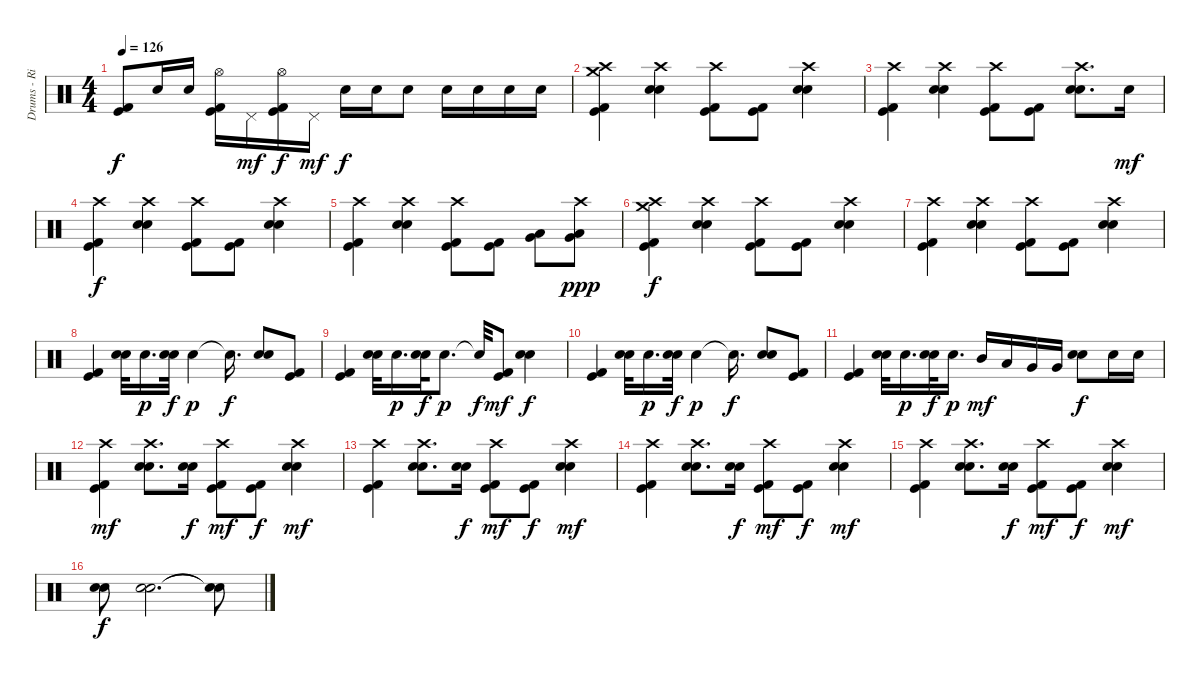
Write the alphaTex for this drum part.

\track ("Drums - Rian" "Drums - Ri") {instrument percussion}
\staff {score}
\articulation defaults
\ts (4 4)
\tempo 126
\clef neutral
\ks c
("Kick (hit) 2" "Kick (hit)").8{dy f} "Electric Snare (hit)".16 "Electric Snare (hit)".16 ("Kick (hit) 2" "Kick (hit)" "Hi-Hat (open)").16 "Pedal Hi-Hat (hit)".16{dy mf} ("Kick (hit) 2" "Kick (hit)" "Hi-Hat (open)").16{dy f} "Pedal Hi-Hat (hit)".16{dy mf} "Electric Snare (hit)".16{dy f} "Electric Snare (hit)".16 "Electric Snare (hit)".8 "Electric Snare (hit)".16 "Electric Snare (hit)".16 "Electric Snare (hit)".16 "Electric Snare (hit)".16 |
("Kick (hit) 2" "Kick (hit)" "Crash high (hit)" "Crash medium (hit)").4 ("Electric Snare (hit)" "Electric Snare (hit)" "Crash high (hit)").4 ("Kick (hit) 2" "Kick (hit)" "Crash high (hit)").8 ("Kick (hit) 2" "Kick (hit)").8 ("Electric Snare (hit)" "Electric Snare (hit)" "Crash high (hit)").4 |
("Kick (hit) 2" "Kick (hit)" "Crash high (hit)").4 ("Electric Snare (hit)" "Electric Snare (hit)" "Crash high (hit)").4 ("Kick (hit) 2" "Kick (hit)" "Crash high (hit)").8 ("Kick (hit) 2" "Kick (hit)").8 ("Electric Snare (hit)" "Electric Snare (hit)" "Crash high (hit)").8{d} "Electric Snare (hit)".16{dy mf} |
("Kick (hit) 2" "Kick (hit)" "Crash high (hit)").4{dy f} ("Electric Snare (hit)" "Electric Snare (hit)" "Crash high (hit)").4 ("Kick (hit) 2" "Kick (hit)" "Crash high (hit)").8 ("Kick (hit) 2" "Kick (hit)").8 ("Electric Snare (hit)" "Electric Snare (hit)" "Crash high (hit)").4 |
("Kick (hit) 2" "Kick (hit)" "Crash high (hit)").4 ("Electric Snare (hit)" "Electric Snare (hit)" "Crash high (hit)").4 ("Kick (hit) 2" "Kick (hit)" "Crash high (hit)").8 ("Kick (hit) 2" "Kick (hit)").8 ("Very Low Tom (hit)" "Low Tom (hit)").8 ("Very Low Tom (hit)" "Low Tom (hit)" "Crash high (hit)").8{dy ppp} |
("Kick (hit) 2" "Kick (hit)" "Crash high (hit)" "Crash medium (hit)").4{dy f} ("Electric Snare (hit)" "Electric Snare (hit)" "Crash high (hit)").4 ("Kick (hit) 2" "Kick (hit)" "Crash high (hit)").8 ("Kick (hit) 2" "Kick (hit)").8 ("Electric Snare (hit)" "Electric Snare (hit)" "Crash high (hit)").4 |
("Kick (hit) 2" "Kick (hit)" "Crash high (hit)").4 ("Electric Snare (hit)" "Electric Snare (hit)" "Crash high (hit)").4 ("Kick (hit) 2" "Kick (hit)" "Crash high (hit)").8 ("Kick (hit) 2" "Kick (hit)").8 ("Electric Snare (hit)" "Electric Snare (hit)" "Crash high (hit)").4 |
("Kick (hit) 2" "Kick (hit)").4 ("Electric Snare (hit)" "Electric Snare (hit)").32 "Electric Snare (hit)".16{d dy p} ("Electric Snare (hit)" "Electric Snare (hit)").32{dy f} "Electric Snare (hit)".4{dy p} "Snare (hit)"{t}.16{d dy f} ("Electric Snare (hit)" "Electric Snare (hit)").8 ("Kick (hit) 2" "Kick (hit)").8 |
("Kick (hit) 2" "Kick (hit)").4 ("Electric Snare (hit)" "Electric Snare (hit)").32 "Electric Snare (hit)".16{d dy p} ("Electric Snare (hit)" "Electric Snare (hit)").32{dy f} "Electric Snare (hit)".8{d dy p} "Snare (hit)"{t}.32{dy f} ("Kick (hit) 2" "Kick (hit)").8{dy mf} ("Electric Snare (hit)" "Electric Snare (hit)").4{dy f} |
("Kick (hit) 2" "Kick (hit)").4 ("Electric Snare (hit)" "Electric Snare (hit)").32 "Electric Snare (hit)".16{d dy p} ("Electric Snare (hit)" "Electric Snare (hit)").32{dy f} "Electric Snare (hit)".4{dy p} "Snare (hit)"{t}.16{d dy f} ("Electric Snare (hit)" "Electric Snare (hit)").8 ("Kick (hit) 2" "Kick (hit)").8 |
("Kick (hit) 2" "Kick (hit)").4 ("Electric Snare (hit)" "Electric Snare (hit)").32 "Electric Snare (hit)".16{d dy p} ("Electric Snare (hit)" "Electric Snare (hit)").32{dy f} "Electric Snare (hit)".16{d dy p} "Mid Tom (hit)".16{dy mf} "Low Tom (hit)".16 "Very Low Tom (hit)".16 "Very Low Tom (hit)".16 ("Electric Snare (hit)" "Electric Snare (hit)").8{dy f} "Electric Snare (hit)".16 "Electric Snare (hit)".16 |
("Kick (hit) 2" "Kick (hit)" "Crash high (hit)").4{dy mf} ("Electric Snare (hit)" "Electric Snare (hit)" "Crash high (hit)").8{d} ("Electric Snare (hit)" "Electric Snare (hit)").16{dy f} ("Kick (hit) 2" "Kick (hit)" "Crash high (hit)").8{dy mf} ("Kick (hit) 2" "Kick (hit)").8{dy f} ("Electric Snare (hit)" "Electric Snare (hit)" "Crash high (hit)").4{dy mf} |
("Kick (hit) 2" "Kick (hit)" "Crash high (hit)").4 ("Electric Snare (hit)" "Electric Snare (hit)" "Crash high (hit)").8{d} ("Electric Snare (hit)" "Electric Snare (hit)").16{dy f} ("Kick (hit) 2" "Kick (hit)" "Crash high (hit)").8{dy mf} ("Kick (hit) 2" "Kick (hit)").8{dy f} ("Electric Snare (hit)" "Electric Snare (hit)" "Crash high (hit)").4{dy mf} |
("Kick (hit) 2" "Kick (hit)" "Crash high (hit)").4 ("Electric Snare (hit)" "Electric Snare (hit)" "Crash high (hit)").8{d} ("Electric Snare (hit)" "Electric Snare (hit)").16{dy f} ("Kick (hit) 2" "Kick (hit)" "Crash high (hit)").8{dy mf} ("Kick (hit) 2" "Kick (hit)").8{dy f} ("Electric Snare (hit)" "Electric Snare (hit)" "Crash high (hit)").4{dy mf} |
("Kick (hit) 2" "Kick (hit)" "Crash high (hit)").4 ("Electric Snare (hit)" "Electric Snare (hit)" "Crash high (hit)").8{d} ("Electric Snare (hit)" "Electric Snare (hit)").16{dy f} ("Kick (hit) 2" "Kick (hit)" "Crash high (hit)").8{dy mf} ("Kick (hit) 2" "Kick (hit)").8{dy f} ("Electric Snare (hit)" "Electric Snare (hit)" "Crash high (hit)").4{dy mf} |
("Electric Snare (hit)" "Electric Snare (hit)").8{dy f} ("Electric Snare (hit)" "Electric Snare (hit)").2{d} ("Snare (hit)"{t} "Snare (hit)"{t}).8
